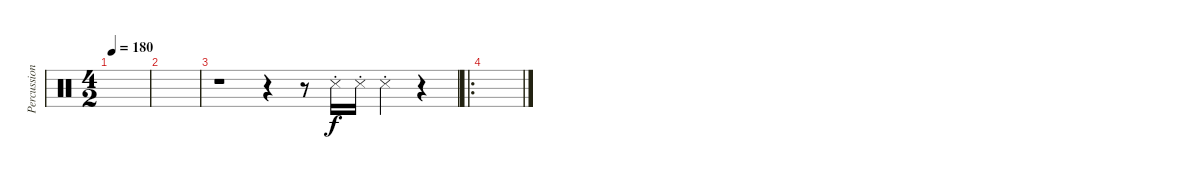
\track ("Percussion" "Percussion") {instrument percussion}
\staff {score}
\articulation defaults
\ts (4 2)
\tempo 180
\clef neutral
\ks c
|
|
r.1 r.4 r.8 "Snare (side stick) 3"{st}.16 "Snare (side stick) 3"{st}.16 "Snare (side stick) 3"{st}.4 r.4 |
\ro
